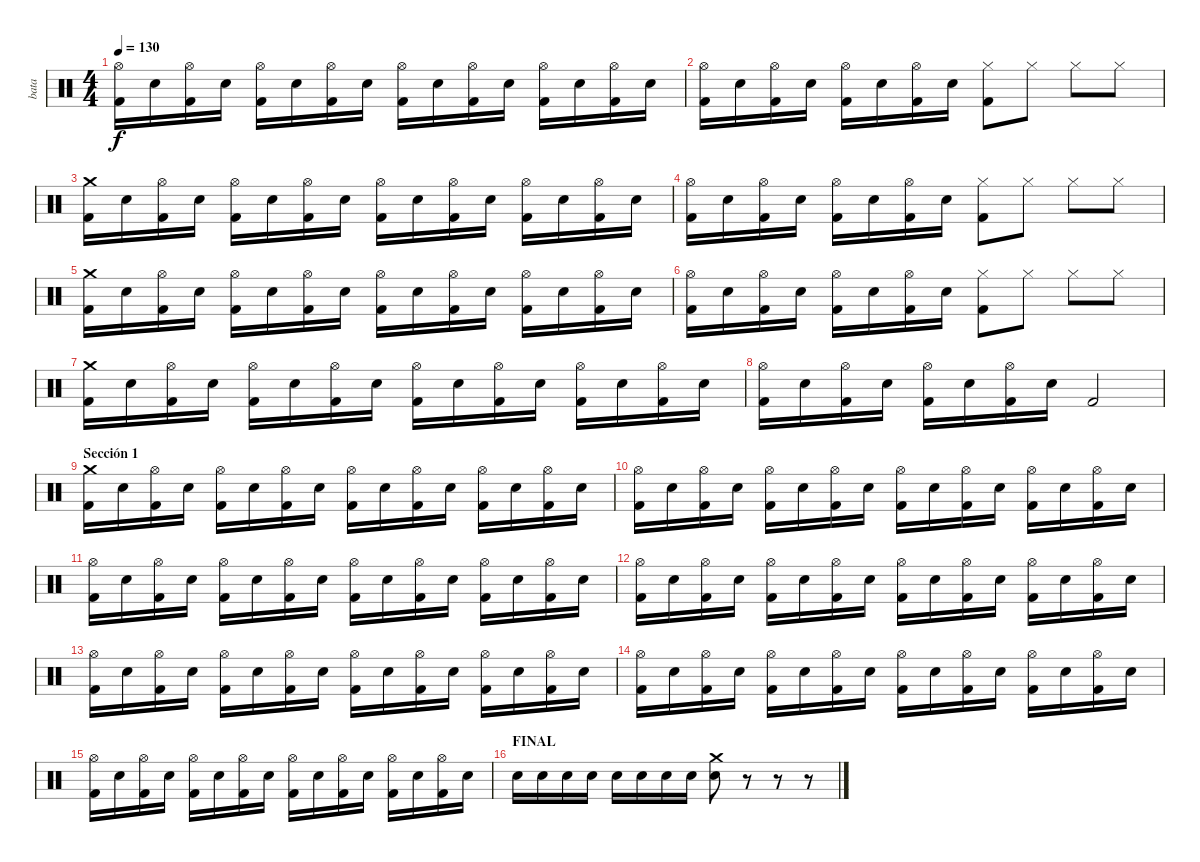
\track ("bata" "bata") {instrument percussion}
\staff {score}
\articulation defaults
\ts (4 4)
\tempo 130
\clef neutral
\ks c
("Kick (hit) 2" "Hi-Hat (open)").16{dy f} "Snare (hit) 2".16 ("Kick (hit) 2" "Hi-Hat (open)").16 "Snare (hit) 2".16 ("Kick (hit) 2" "Hi-Hat (open)").16 "Snare (hit) 2".16 ("Kick (hit) 2" "Hi-Hat (open)").16 "Snare (hit) 2".16 ("Kick (hit) 2" "Hi-Hat (open)").16 "Snare (hit) 2".16 ("Kick (hit) 2" "Hi-Hat (open)").16 "Snare (hit) 2".16 ("Kick (hit) 2" "Hi-Hat (open)").16 "Snare (hit) 2".16 ("Kick (hit) 2" "Hi-Hat (open)").16 "Snare (hit) 2".16 |
("Kick (hit) 2" "Hi-Hat (open)").16 "Snare (hit) 2".16 ("Kick (hit) 2" "Hi-Hat (open)").16 "Snare (hit) 2".16 ("Kick (hit) 2" "Hi-Hat (open)").16 "Snare (hit) 2".16 ("Kick (hit) 2" "Hi-Hat (open)").16 "Snare (hit) 2".16 ("Kick (hit) 2" "Hi-Hat (closed)").8 "Hi-Hat (closed)".8 "Hi-Hat (closed)".8 "Hi-Hat (closed)".8 |
("Kick (hit) 2" "Crash medium (hit)").16 "Snare (hit) 2".16 ("Kick (hit) 2" "Hi-Hat (open)").16 "Snare (hit) 2".16 ("Kick (hit) 2" "Hi-Hat (open)").16 "Snare (hit) 2".16 ("Kick (hit) 2" "Hi-Hat (open)").16 "Snare (hit) 2".16 ("Kick (hit) 2" "Hi-Hat (open)").16 "Snare (hit) 2".16 ("Kick (hit) 2" "Hi-Hat (open)").16 "Snare (hit) 2".16 ("Kick (hit) 2" "Hi-Hat (open)").16 "Snare (hit) 2".16 ("Kick (hit) 2" "Hi-Hat (open)").16 "Snare (hit) 2".16 |
("Kick (hit) 2" "Hi-Hat (open)").16 "Snare (hit) 2".16 ("Kick (hit) 2" "Hi-Hat (open)").16 "Snare (hit) 2".16 ("Kick (hit) 2" "Hi-Hat (open)").16 "Snare (hit) 2".16 ("Kick (hit) 2" "Hi-Hat (open)").16 "Snare (hit) 2".16 ("Kick (hit) 2" "Hi-Hat (closed)").8 "Hi-Hat (closed)".8 "Hi-Hat (closed)".8 "Hi-Hat (closed)".8 |
("Kick (hit) 2" "Crash medium (hit)").16 "Snare (hit) 2".16 ("Kick (hit) 2" "Hi-Hat (open)").16 "Snare (hit) 2".16 ("Kick (hit) 2" "Hi-Hat (open)").16 "Snare (hit) 2".16 ("Kick (hit) 2" "Hi-Hat (open)").16 "Snare (hit) 2".16 ("Kick (hit) 2" "Hi-Hat (open)").16 "Snare (hit) 2".16 ("Kick (hit) 2" "Hi-Hat (open)").16 "Snare (hit) 2".16 ("Kick (hit) 2" "Hi-Hat (open)").16 "Snare (hit) 2".16 ("Kick (hit) 2" "Hi-Hat (open)").16 "Snare (hit) 2".16 |
("Kick (hit) 2" "Hi-Hat (open)").16 "Snare (hit) 2".16 ("Kick (hit) 2" "Hi-Hat (open)").16 "Snare (hit) 2".16 ("Kick (hit) 2" "Hi-Hat (open)").16 "Snare (hit) 2".16 ("Kick (hit) 2" "Hi-Hat (open)").16 "Snare (hit) 2".16 ("Kick (hit) 2" "Hi-Hat (closed)").8 "Hi-Hat (closed)".8 "Hi-Hat (closed)".8 "Hi-Hat (closed)".8 |
("Kick (hit) 2" "Crash medium (hit)").16 "Snare (hit) 2".16 ("Kick (hit) 2" "Hi-Hat (open)").16 "Snare (hit) 2".16 ("Kick (hit) 2" "Hi-Hat (open)").16 "Snare (hit) 2".16 ("Kick (hit) 2" "Hi-Hat (open)").16 "Snare (hit) 2".16 ("Kick (hit) 2" "Hi-Hat (open)").16 "Snare (hit) 2".16 ("Kick (hit) 2" "Hi-Hat (open)").16 "Snare (hit) 2".16 ("Kick (hit) 2" "Hi-Hat (open)").16 "Snare (hit) 2".16 ("Kick (hit) 2" "Hi-Hat (open)").16 "Snare (hit) 2".16 |
("Kick (hit) 2" "Hi-Hat (open)").16 "Snare (hit) 2".16 ("Kick (hit) 2" "Hi-Hat (open)").16 "Snare (hit) 2".16 ("Kick (hit) 2" "Hi-Hat (open)").16 "Snare (hit) 2".16 ("Kick (hit) 2" "Hi-Hat (open)").16 "Snare (hit) 2".16 "Kick (hit) 2".2 |
\section ("" "Sección 1")
("Kick (hit) 2" "Crash medium (hit)").16 "Snare (hit) 2".16 ("Kick (hit) 2" "Hi-Hat (open)").16 "Snare (hit) 2".16 ("Kick (hit) 2" "Hi-Hat (open)").16 "Snare (hit) 2".16 ("Kick (hit) 2" "Hi-Hat (open)").16 "Snare (hit) 2".16 ("Kick (hit) 2" "Hi-Hat (open)").16 "Snare (hit) 2".16 ("Kick (hit) 2" "Hi-Hat (open)").16 "Snare (hit) 2".16 ("Kick (hit) 2" "Hi-Hat (open)").16 "Snare (hit) 2".16 ("Kick (hit) 2" "Hi-Hat (open)").16 "Snare (hit) 2".16 |
("Kick (hit) 2" "Hi-Hat (open)").16 "Snare (hit) 2".16 ("Kick (hit) 2" "Hi-Hat (open)").16 "Snare (hit) 2".16 ("Kick (hit) 2" "Hi-Hat (open)").16 "Snare (hit) 2".16 ("Kick (hit) 2" "Hi-Hat (open)").16 "Snare (hit) 2".16 ("Kick (hit) 2" "Hi-Hat (open)").16 "Snare (hit) 2".16 ("Kick (hit) 2" "Hi-Hat (open)").16 "Snare (hit) 2".16 ("Kick (hit) 2" "Hi-Hat (open)").16 "Snare (hit) 2".16 ("Kick (hit) 2" "Hi-Hat (open)").16 "Snare (hit) 2".16 |
("Kick (hit) 2" "Hi-Hat (open)").16 "Snare (hit) 2".16 ("Kick (hit) 2" "Hi-Hat (open)").16 "Snare (hit) 2".16 ("Kick (hit) 2" "Hi-Hat (open)").16 "Snare (hit) 2".16 ("Kick (hit) 2" "Hi-Hat (open)").16 "Snare (hit) 2".16 ("Kick (hit) 2" "Hi-Hat (open)").16 "Snare (hit) 2".16 ("Kick (hit) 2" "Hi-Hat (open)").16 "Snare (hit) 2".16 ("Kick (hit) 2" "Hi-Hat (open)").16 "Snare (hit) 2".16 ("Kick (hit) 2" "Hi-Hat (open)").16 "Snare (hit) 2".16 |
("Kick (hit) 2" "Hi-Hat (open)").16 "Snare (hit) 2".16 ("Kick (hit) 2" "Hi-Hat (open)").16 "Snare (hit) 2".16 ("Kick (hit) 2" "Hi-Hat (open)").16 "Snare (hit) 2".16 ("Kick (hit) 2" "Hi-Hat (open)").16 "Snare (hit) 2".16 ("Kick (hit) 2" "Hi-Hat (open)").16 "Snare (hit) 2".16 ("Kick (hit) 2" "Hi-Hat (open)").16 "Snare (hit) 2".16 ("Kick (hit) 2" "Hi-Hat (open)").16 "Snare (hit) 2".16 ("Kick (hit) 2" "Hi-Hat (open)").16 "Snare (hit) 2".16 |
("Kick (hit) 2" "Hi-Hat (open)").16 "Snare (hit) 2".16 ("Kick (hit) 2" "Hi-Hat (open)").16 "Snare (hit) 2".16 ("Kick (hit) 2" "Hi-Hat (open)").16 "Snare (hit) 2".16 ("Kick (hit) 2" "Hi-Hat (open)").16 "Snare (hit) 2".16 ("Kick (hit) 2" "Hi-Hat (open)").16 "Snare (hit) 2".16 ("Kick (hit) 2" "Hi-Hat (open)").16 "Snare (hit) 2".16 ("Kick (hit) 2" "Hi-Hat (open)").16 "Snare (hit) 2".16 ("Kick (hit) 2" "Hi-Hat (open)").16 "Snare (hit) 2".16 |
("Kick (hit) 2" "Hi-Hat (open)").16 "Snare (hit) 2".16 ("Kick (hit) 2" "Hi-Hat (open)").16 "Snare (hit) 2".16 ("Kick (hit) 2" "Hi-Hat (open)").16 "Snare (hit) 2".16 ("Kick (hit) 2" "Hi-Hat (open)").16 "Snare (hit) 2".16 ("Kick (hit) 2" "Hi-Hat (open)").16 "Snare (hit) 2".16 ("Kick (hit) 2" "Hi-Hat (open)").16 "Snare (hit) 2".16 ("Kick (hit) 2" "Hi-Hat (open)").16 "Snare (hit) 2".16 ("Kick (hit) 2" "Hi-Hat (open)").16 "Snare (hit) 2".16 |
("Kick (hit) 2" "Hi-Hat (open)").16 "Snare (hit) 2".16 ("Kick (hit) 2" "Hi-Hat (open)").16 "Snare (hit) 2".16 ("Kick (hit) 2" "Hi-Hat (open)").16 "Snare (hit) 2".16 ("Kick (hit) 2" "Hi-Hat (open)").16 "Snare (hit) 2".16 ("Kick (hit) 2" "Hi-Hat (open)").16 "Snare (hit) 2".16 ("Kick (hit) 2" "Hi-Hat (open)").16 "Snare (hit) 2".16 ("Kick (hit) 2" "Hi-Hat (open)").16 "Snare (hit) 2".16 ("Kick (hit) 2" "Hi-Hat (open)").16 "Snare (hit) 2".16 |
\section ("" "FINAL")
"Snare (hit) 2".16 "Snare (hit) 2".16 "Snare (hit) 2".16 "Snare (hit) 2".16 "Snare (hit) 2".16 "Snare (hit) 2".16 "Snare (hit) 2".16 "Snare (hit) 2".16 ("Snare (hit) 2" "Crash medium (hit)").8 r.8 r.8 r.8
